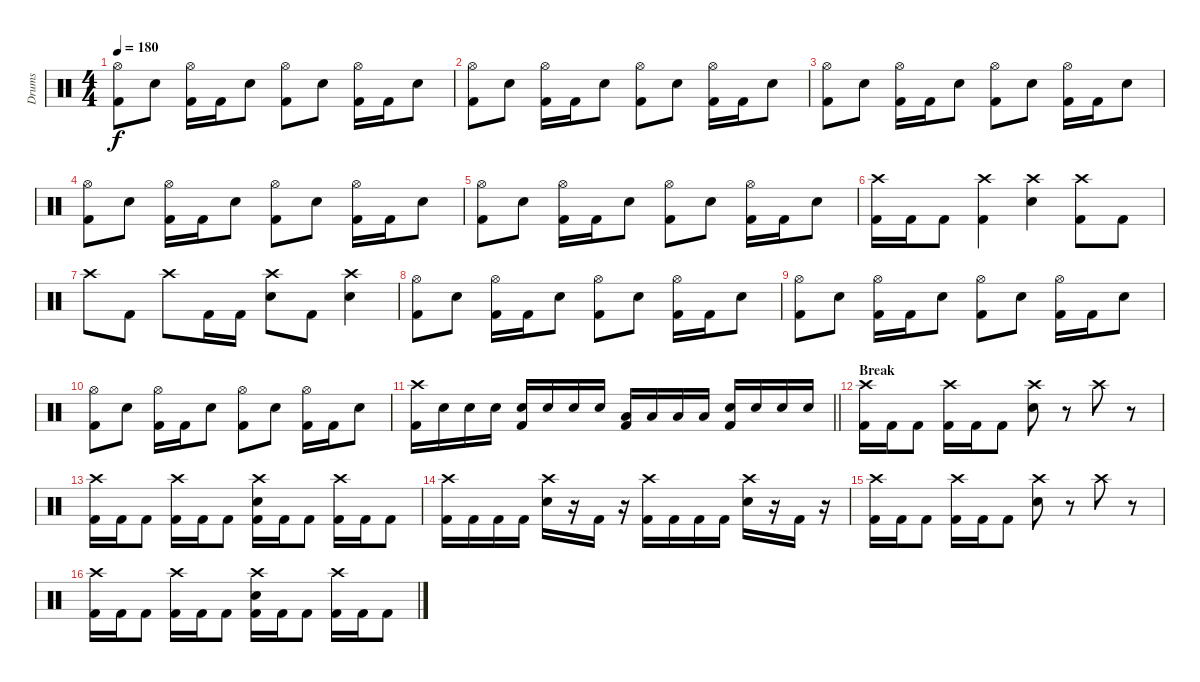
\track ("Drums" "Drums") {instrument percussion}
\staff {score}
\articulation defaults
\ts (4 4)
\tempo 180
\clef neutral
\ks c
("Hi-Hat (open)" "Kick (hit) 2").8{dy f} "Electric Snare (hit)".8 ("Hi-Hat (open)" "Kick (hit) 2").16 "Kick (hit) 2".16 "Electric Snare (hit)".8 ("Hi-Hat (open)" "Kick (hit) 2").8 "Electric Snare (hit)".8 ("Hi-Hat (open)" "Kick (hit) 2").16 "Kick (hit) 2".16 "Electric Snare (hit)".8 |
("Hi-Hat (open)" "Kick (hit) 2").8 "Electric Snare (hit)".8 ("Hi-Hat (open)" "Kick (hit) 2").16 "Kick (hit) 2".16 "Electric Snare (hit)".8 ("Hi-Hat (open)" "Kick (hit) 2").8 "Electric Snare (hit)".8 ("Hi-Hat (open)" "Kick (hit) 2").16 "Kick (hit) 2".16 "Electric Snare (hit)".8 |
("Hi-Hat (open)" "Kick (hit) 2").8 "Electric Snare (hit)".8 ("Hi-Hat (open)" "Kick (hit) 2").16 "Kick (hit) 2".16 "Electric Snare (hit)".8 ("Hi-Hat (open)" "Kick (hit) 2").8 "Electric Snare (hit)".8 ("Hi-Hat (open)" "Kick (hit) 2").16 "Kick (hit) 2".16 "Electric Snare (hit)".8 |
("Hi-Hat (open)" "Kick (hit) 2").8 "Electric Snare (hit)".8 ("Hi-Hat (open)" "Kick (hit) 2").16 "Kick (hit) 2".16 "Electric Snare (hit)".8 ("Hi-Hat (open)" "Kick (hit) 2").8 "Electric Snare (hit)".8 ("Hi-Hat (open)" "Kick (hit) 2").16 "Kick (hit) 2".16 "Electric Snare (hit)".8 |
("Hi-Hat (open)" "Kick (hit) 2").8 "Electric Snare (hit)".8 ("Hi-Hat (open)" "Kick (hit) 2").16 "Kick (hit) 2".16 "Electric Snare (hit)".8 ("Hi-Hat (open)" "Kick (hit) 2").8 "Electric Snare (hit)".8 ("Hi-Hat (open)" "Kick (hit) 2").16 "Kick (hit) 2".16 "Electric Snare (hit)".8 |
("Crash high (hit)" "Kick (hit) 2").16 "Kick (hit) 2".16 "Kick (hit) 2".8 ("Crash high (hit)" "Kick (hit) 2").4 ("Crash high (hit)" "Electric Snare (hit)").4 ("Crash high (hit)" "Kick (hit) 2").8 "Kick (hit) 2".8 |
"Crash high (hit)".8 "Kick (hit) 2".8 "Crash high (hit)".8 "Kick (hit) 2".16 "Kick (hit) 2".16 ("Crash high (hit)" "Electric Snare (hit)").8 "Kick (hit) 2".8 ("Crash high (hit)" "Electric Snare (hit)").4 |
("Hi-Hat (open)" "Kick (hit) 2").8 "Electric Snare (hit)".8 ("Hi-Hat (open)" "Kick (hit) 2").16 "Kick (hit) 2".16 "Electric Snare (hit)".8 ("Hi-Hat (open)" "Kick (hit) 2").8 "Electric Snare (hit)".8 ("Hi-Hat (open)" "Kick (hit) 2").16 "Kick (hit) 2".16 "Electric Snare (hit)".8 |
("Hi-Hat (open)" "Kick (hit) 2").8 "Electric Snare (hit)".8 ("Hi-Hat (open)" "Kick (hit) 2").16 "Kick (hit) 2".16 "Electric Snare (hit)".8 ("Hi-Hat (open)" "Kick (hit) 2").8 "Electric Snare (hit)".8 ("Hi-Hat (open)" "Kick (hit) 2").16 "Kick (hit) 2".16 "Electric Snare (hit)".8 |
("Hi-Hat (open)" "Kick (hit) 2").8 "Electric Snare (hit)".8 ("Hi-Hat (open)" "Kick (hit) 2").16 "Kick (hit) 2".16 "Electric Snare (hit)".8 ("Hi-Hat (open)" "Kick (hit) 2").8 "Electric Snare (hit)".8 ("Hi-Hat (open)" "Kick (hit) 2").16 "Kick (hit) 2".16 "Electric Snare (hit)".8 |
\barLineRight lightlight
("Crash high (hit)" "Kick (hit) 2").16 "Electric Snare (hit)".16 "Electric Snare (hit)".16 "Electric Snare (hit)".16 ("Electric Snare (hit)" "Kick (hit) 2").16 "Electric Snare (hit)".16 "Electric Snare (hit)".16 "Electric Snare (hit)".16 ("Low Tom (hit)" "Kick (hit) 2").16 "Low Tom (hit)".16 "Low Tom (hit)".16 "Low Tom (hit)".16 ("Electric Snare (hit)" "Kick (hit) 2").16 "Electric Snare (hit)".16 "Electric Snare (hit)".16 "Electric Snare (hit)".16 |
\section ("" "Break")
("Crash high (hit)" "Kick (hit) 2").16 "Kick (hit) 2".16 "Kick (hit) 2".8 ("Crash high (hit)" "Kick (hit) 2").16 "Kick (hit) 2".16 "Kick (hit) 2".8 ("Crash high (hit)" "Electric Snare (hit)").8 r.8 "Crash high (hit)".8 r.8 |
("Crash high (hit)" "Kick (hit) 2").16 "Kick (hit) 2".16 "Kick (hit) 2".8 ("Crash high (hit)" "Kick (hit) 2").16 "Kick (hit) 2".16 "Kick (hit) 2".8 ("Crash high (hit)" "Electric Snare (hit)" "Kick (hit) 2").16 "Kick (hit) 2".16 "Kick (hit) 2".8 ("Crash high (hit)" "Kick (hit) 2").16 "Kick (hit) 2".16 "Kick (hit) 2".8 |
("Crash high (hit)" "Kick (hit) 2").16 "Kick (hit) 2".16 "Kick (hit) 2".16 "Kick (hit) 2".16 ("Crash high (hit)" "Electric Snare (hit)").16 r.16 "Kick (hit) 2".16 r.16 ("Crash high (hit)" "Kick (hit) 2").16 "Kick (hit) 2".16 "Kick (hit) 2".16 "Kick (hit) 2".16 ("Crash high (hit)" "Electric Snare (hit)").16 r.16 "Kick (hit) 2".16 r.16 |
("Crash high (hit)" "Kick (hit) 2").16 "Kick (hit) 2".16 "Kick (hit) 2".8 ("Crash high (hit)" "Kick (hit) 2").16 "Kick (hit) 2".16 "Kick (hit) 2".8 ("Crash high (hit)" "Electric Snare (hit)").8 r.8 "Crash high (hit)".8 r.8 |
("Crash high (hit)" "Kick (hit) 2").16 "Kick (hit) 2".16 "Kick (hit) 2".8 ("Crash high (hit)" "Kick (hit) 2").16 "Kick (hit) 2".16 "Kick (hit) 2".8 ("Crash high (hit)" "Electric Snare (hit)" "Kick (hit) 2").16 "Kick (hit) 2".16 "Kick (hit) 2".8 ("Crash high (hit)" "Kick (hit) 2").16 "Kick (hit) 2".16 "Kick (hit) 2".8
